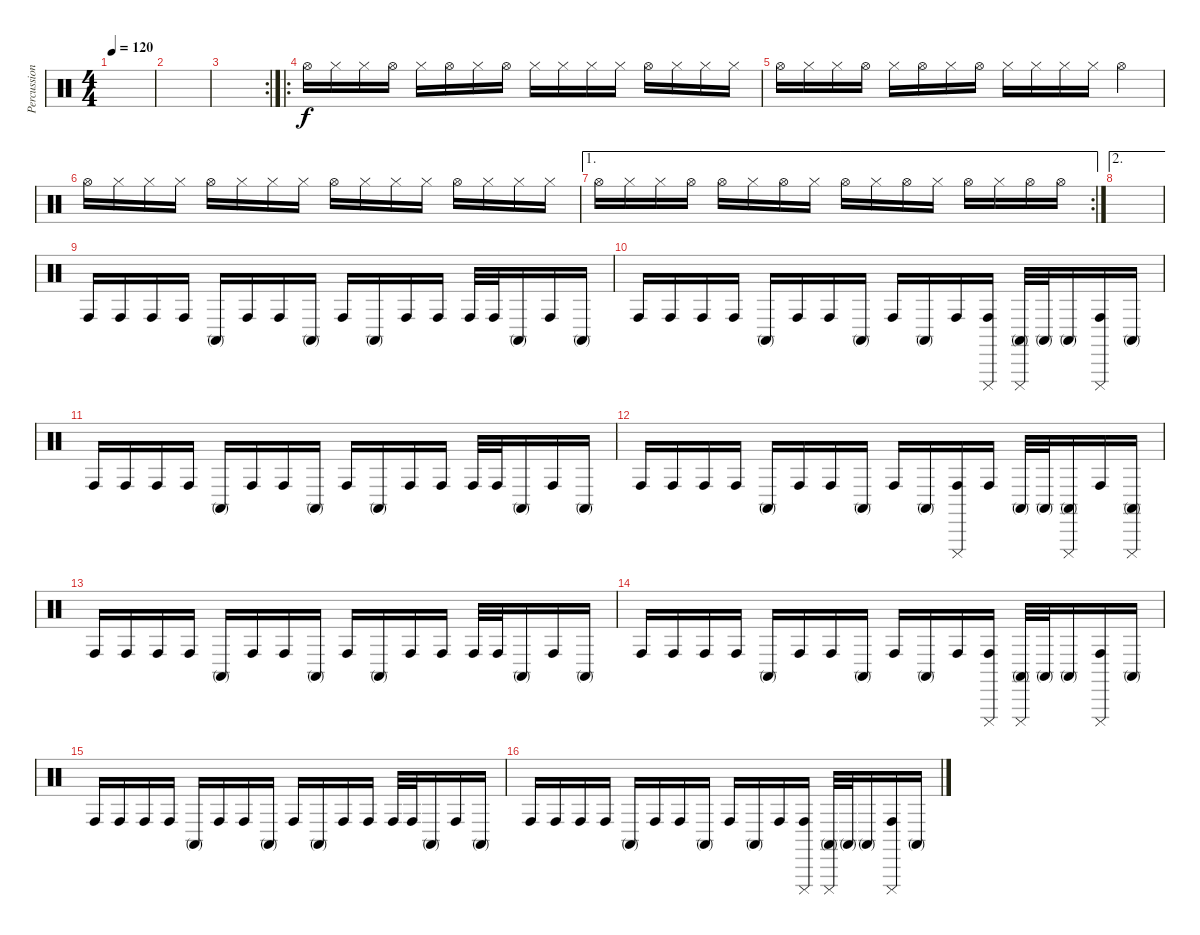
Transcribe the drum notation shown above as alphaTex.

\track ("Percussion" "Percussion") {instrument percussion}
\staff {score}
\articulation defaults
\ts (4 4)
\tempo 120
\clef neutral
\ks c
|
|
\rc 2
|
\ro "Hi-Hat (open)".16 "Hi-Hat (closed)".16 "Hi-Hat (closed)".16 "Hi-Hat (open)".16 "Hi-Hat (closed)".16 "Hi-Hat (open)".16 "Hi-Hat (closed)".16 "Hi-Hat (open)".16 "Hi-Hat (closed)".16 "Hi-Hat (closed)".16 "Hi-Hat (closed)".16 "Hi-Hat (closed)".16 "Hi-Hat (open)".16 "Hi-Hat (closed)".16 "Hi-Hat (closed)".16 "Hi-Hat (closed)".16
|
"Hi-Hat (open)".16 "Hi-Hat (closed)".16 "Hi-Hat (closed)".16 "Hi-Hat (open)".16 "Hi-Hat (closed)".16 "Hi-Hat (open)".16 "Hi-Hat (closed)".16 "Hi-Hat (open)".16 "Hi-Hat (closed)".16 "Hi-Hat (closed)".16 "Hi-Hat (closed)".16 "Hi-Hat (closed)".16 "Hi-Hat (open)".4 |
"Hi-Hat (open)".16 "Hi-Hat (closed)".16 "Hi-Hat (closed)".16 "Hi-Hat (closed)".16 "Hi-Hat (open)".16 "Hi-Hat (closed)".16 "Hi-Hat (closed)".16 "Hi-Hat (closed)".16 "Hi-Hat (open)".16 "Hi-Hat (closed)".16 "Hi-Hat (closed)".16 "Hi-Hat (closed)".16 "Hi-Hat (open)".16 "Hi-Hat (closed)".16 "Hi-Hat (closed)".16 "Hi-Hat (closed)".16 |
\ae 1
\rc 2 "Hi-Hat (open)".16 "Hi-Hat (closed)".16 "Hi-Hat (closed)".16 "Hi-Hat (open)".16 "Hi-Hat (open)".16 "Hi-Hat (closed)".16 "Hi-Hat (open)".16 "Hi-Hat (closed)".16 "Hi-Hat (open)".16 "Hi-Hat (closed)".16 "Hi-Hat (open)".16 "Hi-Hat (closed)".16 "Hi-Hat (open)".16 "Hi-Hat (closed)".16 "Hi-Hat (open)".16 "Hi-Hat (open)".16
|
\ae 2
|
"Conga high (hit)".16 "Conga high (hit)".16 "Conga high (hit)".16 "Conga high (hit)".16 "Conga high (mute)".16 "Conga high (hit)".16 "Conga high (hit)".16 "Conga high (mute)".16 "Conga high (hit)".16 "Conga high (mute)".16 "Conga high (hit)".16 "Conga high (hit)".16 "Conga high (hit)".32 "Conga high (hit)".32 "Conga high (mute)".16 "Conga high (hit)".16 "Conga high (mute)".16 |
"Conga high (hit)".16 "Conga high (hit)".16 "Conga high (hit)".16 "Conga high (hit)".16 "Conga high (mute)".16 "Conga high (hit)".16 "Conga high (hit)".16 "Conga high (mute)".16 "Conga high (hit)".16 "Conga high (mute)".16 "Conga high (hit)".16 ("Cuica (mute)" "Conga high (hit)").16 ("Cuica (mute)" "Conga high (mute)").32 "Conga high (mute)".32 "Conga high (mute)".16 ("Cuica (mute)" "Conga high (hit)").16 "Conga high (mute)".16 |
"Conga high (hit)".16 "Conga high (hit)".16 "Conga high (hit)".16 "Conga high (hit)".16 "Conga high (mute)".16 "Conga high (hit)".16 "Conga high (hit)".16 "Conga high (mute)".16 "Conga high (hit)".16 "Conga high (mute)".16 "Conga high (hit)".16 "Conga high (hit)".16 "Conga high (hit)".32 "Conga high (hit)".32 "Conga high (mute)".16 "Conga high (hit)".16 "Conga high (mute)".16 |
"Conga high (hit)".16 "Conga high (hit)".16 "Conga high (hit)".16 "Conga high (hit)".16 "Conga high (mute)".16 "Conga high (hit)".16 "Conga high (hit)".16 "Conga high (mute)".16 "Conga high (hit)".16 "Conga high (mute)".16 ("Cuica (mute)" "Conga high (hit)").16 "Conga high (hit)".16 "Conga high (mute)".32 "Conga high (mute)".32 ("Cuica (mute)" "Conga high (mute)").16 "Conga high (hit)".16 ("Cuica (mute)" "Conga high (mute)").16 |
"Conga high (hit)".16 "Conga high (hit)".16 "Conga high (hit)".16 "Conga high (hit)".16 "Conga high (mute)".16 "Conga high (hit)".16 "Conga high (hit)".16 "Conga high (mute)".16 "Conga high (hit)".16 "Conga high (mute)".16 "Conga high (hit)".16 "Conga high (hit)".16 "Conga high (hit)".32 "Conga high (hit)".32 "Conga high (mute)".16 "Conga high (hit)".16 "Conga high (mute)".16 |
"Conga high (hit)".16 "Conga high (hit)".16 "Conga high (hit)".16 "Conga high (hit)".16 "Conga high (mute)".16 "Conga high (hit)".16 "Conga high (hit)".16 "Conga high (mute)".16 "Conga high (hit)".16 "Conga high (mute)".16 "Conga high (hit)".16 ("Cuica (mute)" "Conga high (hit)").16 ("Cuica (mute)" "Conga high (mute)").32 "Conga high (mute)".32 "Conga high (mute)".16 ("Cuica (mute)" "Conga high (hit)").16 "Conga high (mute)".16 |
"Conga high (hit)".16 "Conga high (hit)".16 "Conga high (hit)".16 "Conga high (hit)".16 "Conga high (mute)".16 "Conga high (hit)".16 "Conga high (hit)".16 "Conga high (mute)".16 "Conga high (hit)".16 "Conga high (mute)".16 "Conga high (hit)".16 "Conga high (hit)".16 "Conga high (hit)".32 "Conga high (hit)".32 "Conga high (mute)".16 "Conga high (hit)".16 "Conga high (mute)".16 |
"Conga high (hit)".16 "Conga high (hit)".16 "Conga high (hit)".16 "Conga high (hit)".16 "Conga high (mute)".16 "Conga high (hit)".16 "Conga high (hit)".16 "Conga high (mute)".16 "Conga high (hit)".16 "Conga high (mute)".16 "Conga high (hit)".16 ("Cuica (mute)" "Conga high (hit)").16 ("Cuica (mute)" "Conga high (mute)").32 "Conga high (mute)".32 "Conga high (mute)".16 ("Cuica (mute)" "Conga high (hit)").16 "Conga high (mute)".16
